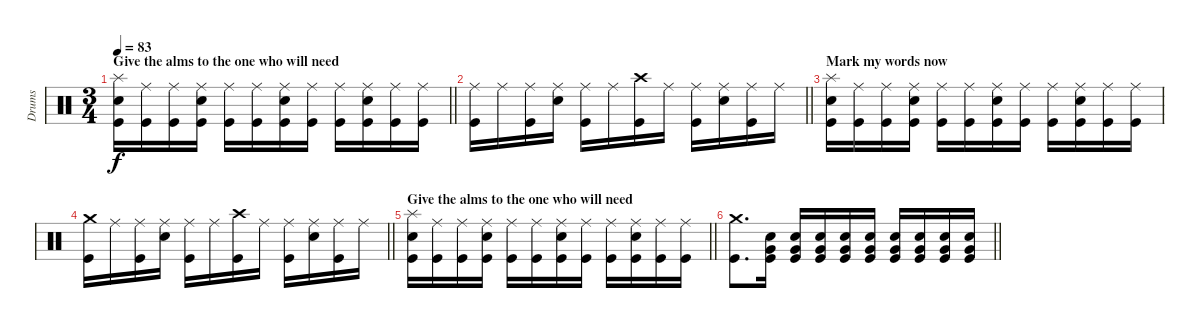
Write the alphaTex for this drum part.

\track ("Drums" "Drums") {instrument percussion}
\staff {score}
\articulation defaults
\ts (3 4)
\section ("" "Give the alms to the one who will need")
\tempo 83
\clef neutral
\barLineRight lightlight
\ks c
("Splash (hit)" "Snare (hit) 2" "Kick (hit)").16{dy f} ("Ride (middle)" "Kick (hit)").16 ("Ride (middle)" "Kick (hit)").16 ("Ride (middle)" "Snare (hit) 2" "Kick (hit)").16 ("Ride (middle)" "Kick (hit)").16 ("Ride (middle)" "Kick (hit)").16 ("Ride (middle)" "Snare (hit) 2" "Kick (hit)").16 ("Ride (middle)" "Kick (hit)").16 ("Ride (middle)" "Kick (hit)").16 ("Ride (middle)" "Snare (hit) 2" "Kick (hit)").16 ("Ride (middle)" "Kick (hit)").16 ("Ride (middle)" "Kick (hit)").16 |
\barLineRight lightlight
("Ride (middle)" "Kick (hit)").16 "Ride (middle)".16 ("Ride (middle)" "Kick (hit)").16 ("Ride (middle)" "Snare (hit) 2").16 ("Ride (middle)" "Kick (hit)").16 "Ride (middle)".16 ("Crash high (hit)" "Kick (hit)").16 "Ride (middle)".16 ("Ride (middle)" "Kick (hit)").16 ("Ride (middle)" "Snare (hit) 2").16 ("Ride (middle)" "Kick (hit)").16 "Ride (middle)".16 |
\section ("" "Mark my words now")
("Splash (hit)" "Snare (hit) 2" "Kick (hit)").16 ("Ride (middle)" "Kick (hit)").16 ("Ride (middle)" "Kick (hit)").16 ("Ride (middle)" "Snare (hit) 2" "Kick (hit)").16 ("Ride (middle)" "Kick (hit)").16 ("Ride (middle)" "Kick (hit)").16 ("Ride (middle)" "Snare (hit) 2" "Kick (hit)").16 ("Ride (middle)" "Kick (hit)").16 ("Ride (middle)" "Kick (hit)").16 ("Ride (middle)" "Snare (hit) 2" "Kick (hit)").16 ("Ride (middle)" "Kick (hit)").16 ("Ride (middle)" "Kick (hit)").16 |
\barLineRight lightlight
("Crash medium (hit)" "Kick (hit)").16 "Ride (middle)".16 ("Ride (middle)" "Kick (hit)").16 ("Ride (middle)" "Snare (hit) 2").16 ("Ride (middle)" "Kick (hit)").16 "Ride (middle)".16 ("Crash high (hit)" "Kick (hit)").16 "Ride (middle)".16 ("Ride (middle)" "Kick (hit)").16 ("Ride (middle)" "Snare (hit) 2").16 ("Ride (middle)" "Kick (hit)").16 "Ride (middle)".16 |
\section ("" "Give the alms to the one who will need")
\barLineRight lightlight
("Splash (hit)" "Snare (hit) 2" "Kick (hit)").16 ("Ride (middle)" "Kick (hit)").16 ("Ride (middle)" "Kick (hit)").16 ("Ride (middle)" "Snare (hit) 2" "Kick (hit)").16 ("Ride (middle)" "Kick (hit)").16 ("Ride (middle)" "Kick (hit)").16 ("Ride (middle)" "Snare (hit) 2" "Kick (hit)").16 ("Ride (middle)" "Kick (hit)").16 ("Ride (middle)" "Kick (hit)").16 ("Ride (middle)" "Snare (hit) 2" "Kick (hit)").16 ("Ride (middle)" "Kick (hit)").16 ("Ride (middle)" "Kick (hit)").16 |
\barLineRight lightlight
("Crash medium (hit)" "Kick (hit)").8{d} ("Snare (hit) 2" "Very Low Tom (hit)" "Kick (hit)").16 ("Snare (hit) 2" "Very Low Tom (hit)" "Kick (hit)").16 ("Snare (hit) 2" "Very Low Tom (hit)" "Kick (hit)").16 ("Snare (hit) 2" "Very Low Tom (hit)" "Kick (hit)").16 ("Snare (hit) 2" "Very Low Tom (hit)" "Kick (hit)").16 ("Snare (hit) 2" "Very Low Tom (hit)" "Kick (hit)").16 ("Snare (hit) 2" "Very Low Tom (hit)" "Kick (hit)").16 ("Snare (hit) 2" "Very Low Tom (hit)" "Kick (hit)").16 ("Snare (hit) 2" "Very Low Tom (hit)" "Kick (hit)").16
